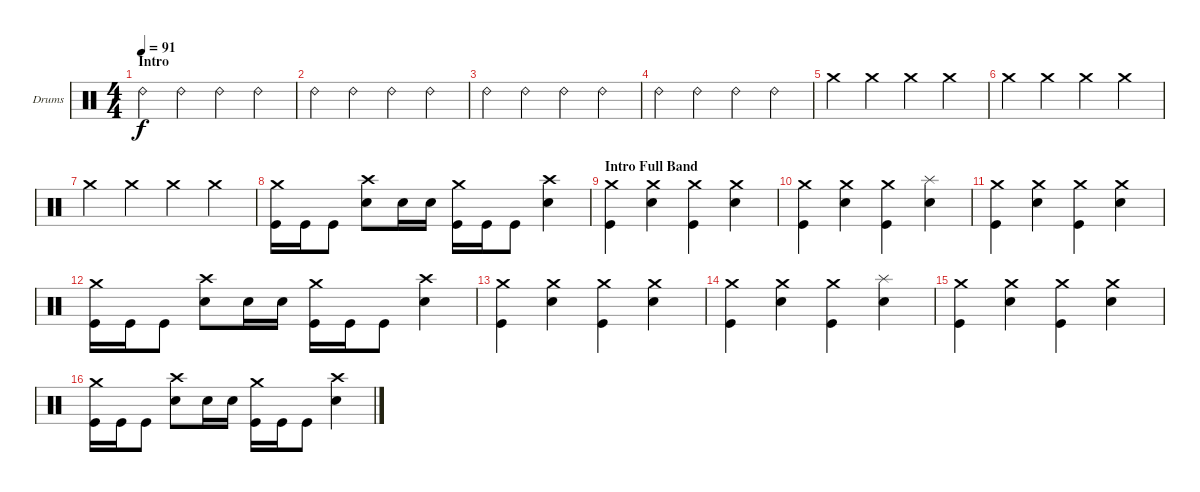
\defaultSystemsLayout 4
\bracketExtendMode groupsimilarinstruments
\firstSystemTrackNameOrientation horizontal
\otherSystemsTrackNameOrientation horizontal
\track ("Drumkit" "Drums") {instrument percussion}
\staff {score}
\articulation defaults
\ts (4 4)
\section ("" "Intro")
\tempo 91
\clef neutral
\scale
0.472222
\ks c "Ride (bell) 2".4{dy f} "Ride (bell) 2".4 "Ride (bell) 2".4 "Ride (bell) 2".4
|
\scale
0.263889 "Ride (bell) 2".4 "Ride (bell) 2".4 "Ride (bell) 2".4 "Ride (bell) 2".4 |
\scale
0.263889 "Ride (bell) 2".4 "Ride (bell) 2".4 "Ride (bell) 2".4 "Ride (bell) 2".4 |
\scale
0.333333 "Ride (bell) 2".4 "Ride (bell) 2".4 "Ride (bell) 2".4 "Ride (bell) 2".4 |
\scale
0.333333 "Crash medium (hit)".4 "Crash medium (hit)".4 "Crash medium (hit)".4 "Crash medium (hit)".4 |
\scale
0.333333 "Crash medium (hit)".4 "Crash medium (hit)".4 "Crash medium (hit)".4 "Crash medium (hit)".4 |
\scale
0.333333 "Crash medium (hit)".4 "Crash medium (hit)".4 "Crash medium (hit)".4 "Crash medium (hit)".4 |
\scale
0.333333 ("Kick (hit)" "Crash medium (hit)").16 "Kick (hit)".16 "Kick (hit)".8 ("Snare (hit) 2" "Crash high (hit)").8 "Snare (hit) 2".16 "Snare (hit) 2".16 ("Kick (hit)" "Crash medium (hit)").16 "Kick (hit)".16 "Kick (hit)".8 ("Snare (hit) 2" "Crash high (hit)").4 |
\section ("" "Intro Full Band")
\scale
0.333333 ("Kick (hit)" "Crash medium (hit)").4 ("Snare (hit) 2" "Crash medium (hit)").4 ("Kick (hit)" "Crash medium (hit)").4 ("Snare (hit) 2" "Crash medium (hit)").4 |
\scale
0.333333 ("Kick (hit)" "Crash medium (hit)").4 ("Snare (hit) 2" "Crash medium (hit)").4 ("Kick (hit)" "Crash medium (hit)").4 ("Snare (hit) 2" "Splash (hit)").4 |
\scale
0.333333 ("Kick (hit)" "Crash medium (hit)").4 ("Snare (hit) 2" "Crash medium (hit)").4 ("Kick (hit)" "Crash medium (hit)").4 ("Snare (hit) 2" "Crash medium (hit)").4 |
\scale
0.333333 ("Kick (hit)" "Crash medium (hit)").16 "Kick (hit)".16 "Kick (hit)".8 ("Snare (hit) 2" "Crash high (hit)").8 "Snare (hit) 2".16 "Snare (hit) 2".16 ("Kick (hit)" "Crash medium (hit)").16 "Kick (hit)".16 "Kick (hit)".8 ("Snare (hit) 2" "Crash high (hit)").4 |
\scale
0.333333 ("Kick (hit)" "Crash medium (hit)").4 ("Snare (hit) 2" "Crash medium (hit)").4 ("Kick (hit)" "Crash medium (hit)").4 ("Snare (hit) 2" "Crash medium (hit)").4 |
\scale
0.333333 ("Kick (hit)" "Crash medium (hit)").4 ("Snare (hit) 2" "Crash medium (hit)").4 ("Kick (hit)" "Crash medium (hit)").4 ("Snare (hit) 2" "Splash (hit)").4 |
\scale
0.333333 ("Kick (hit)" "Crash medium (hit)").4 ("Snare (hit) 2" "Crash medium (hit)").4 ("Kick (hit)" "Crash medium (hit)").4 ("Snare (hit) 2" "Crash medium (hit)").4 |
\scale
0.333333 ("Kick (hit)" "Crash medium (hit)").16 "Kick (hit)".16 "Kick (hit)".8 ("Snare (hit) 2" "Crash high (hit)").8 "Snare (hit) 2".16 "Snare (hit) 2".16 ("Kick (hit)" "Crash medium (hit)").16 "Kick (hit)".16 "Kick (hit)".8 ("Snare (hit) 2" "Crash high (hit)").4
